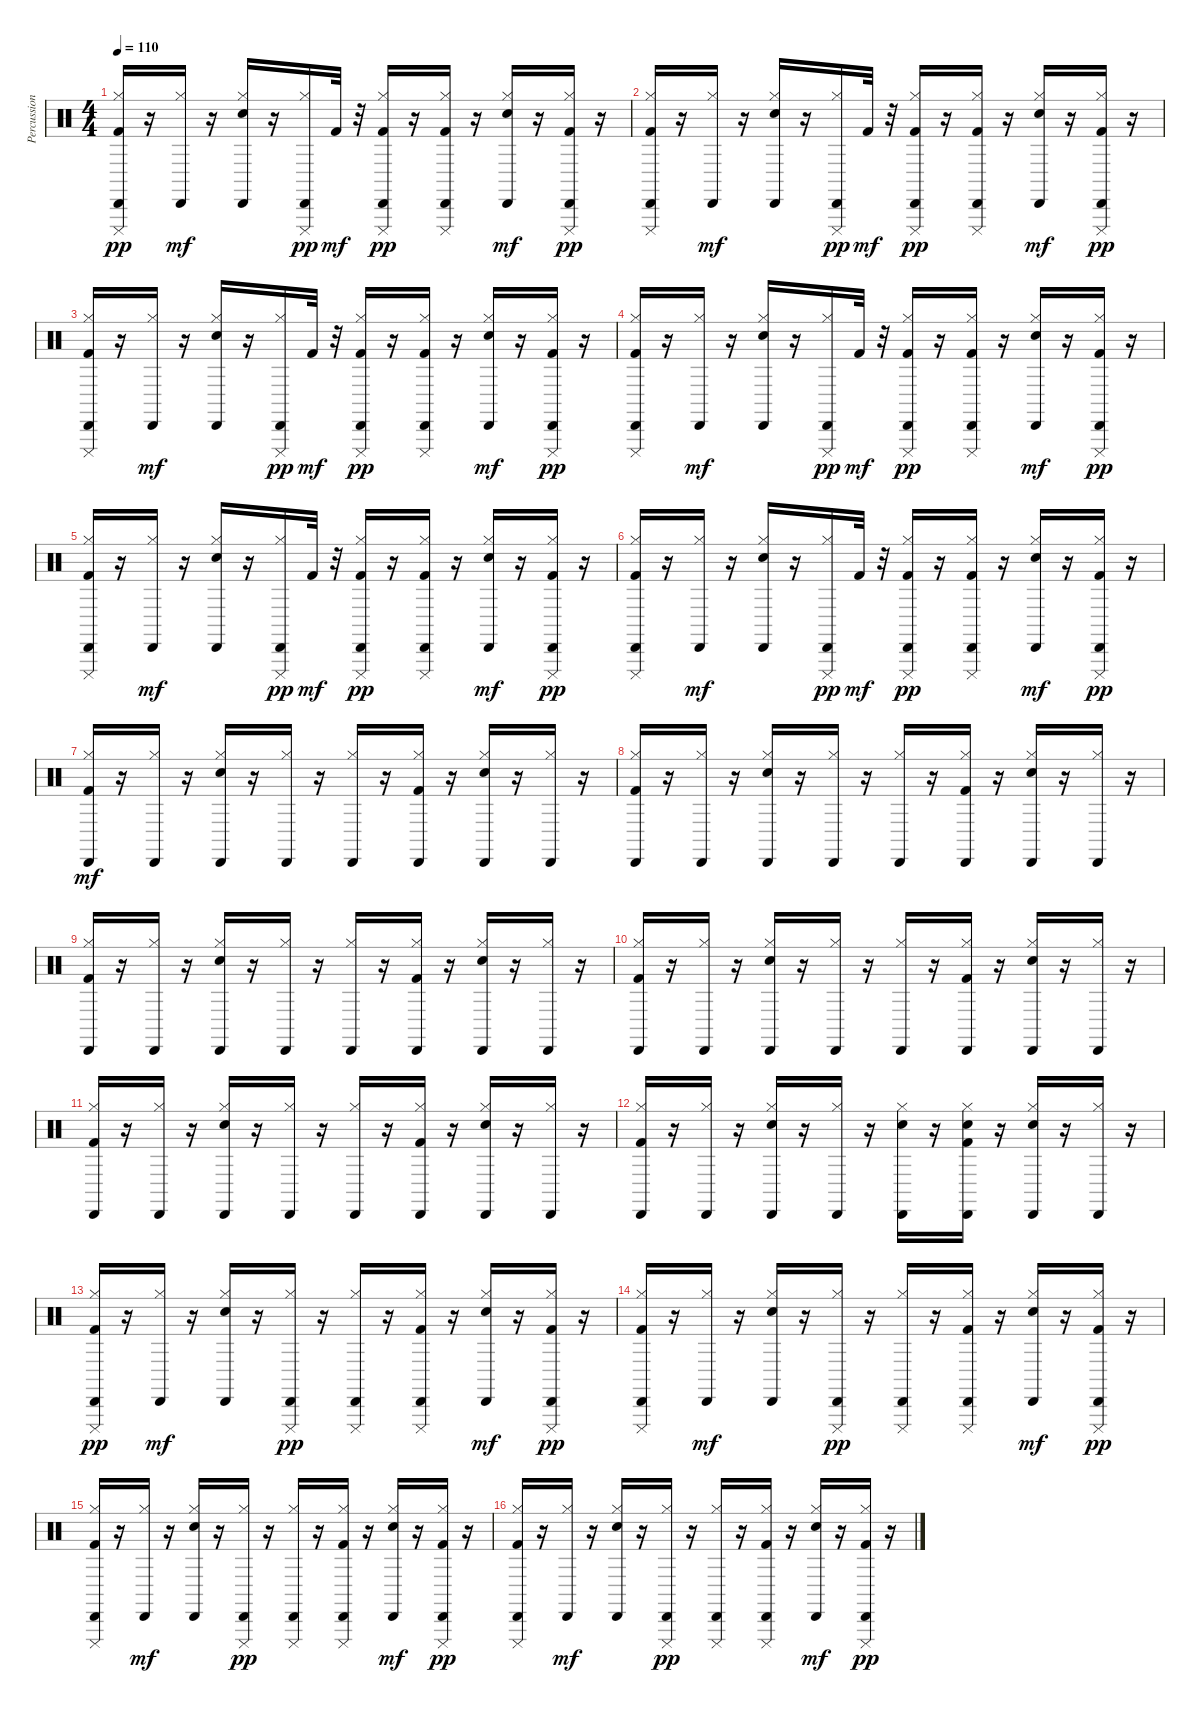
\track ("Percussion" "Percussion") {instrument percussion}
\staff {score}
\articulation defaults
\ts (4 4)
\tempo 110
\clef neutral
\ks c
("Kick (hit) 2" "Hi-Hat (closed)" "Cabasa (hit)" "Cuica (mute)").16{dy pp} r.16 ("Hi-Hat (closed)" "Cabasa (hit)").16{dy mf} r.16 ("Electric Snare (hit)" "Hi-Hat (closed)" "Cabasa (hit)").16 r.16 ("Hi-Hat (closed)" "Cabasa (hit)" "Cuica (mute)").16{dy pp} "Kick (hit) 2".32{dy mf} r.32 ("Kick (hit) 2" "Hi-Hat (closed)" "Cabasa (hit)" "Cuica (mute)").16{dy pp} r.16 ("Kick (hit) 2" "Hi-Hat (closed)" "Cabasa (hit)" "Cuica (mute)").16 r.16 ("Electric Snare (hit)" "Hi-Hat (closed)" "Cabasa (hit)").16{dy mf} r.16 ("Kick (hit) 2" "Hi-Hat (closed)" "Cabasa (hit)" "Cuica (mute)").16{dy pp} r.16 |
("Kick (hit) 2" "Hi-Hat (closed)" "Cabasa (hit)" "Cuica (mute)").16 r.16 ("Hi-Hat (closed)" "Cabasa (hit)").16{dy mf} r.16 ("Electric Snare (hit)" "Hi-Hat (closed)" "Cabasa (hit)").16 r.16 ("Hi-Hat (closed)" "Cabasa (hit)" "Cuica (mute)").16{dy pp} "Kick (hit) 2".32{dy mf} r.32 ("Kick (hit) 2" "Hi-Hat (closed)" "Cabasa (hit)" "Cuica (mute)").16{dy pp} r.16 ("Kick (hit) 2" "Hi-Hat (closed)" "Cabasa (hit)" "Cuica (mute)").16 r.16 ("Electric Snare (hit)" "Hi-Hat (closed)" "Cabasa (hit)").16{dy mf} r.16 ("Kick (hit) 2" "Hi-Hat (closed)" "Cabasa (hit)" "Cuica (mute)").16{dy pp} r.16 |
("Kick (hit) 2" "Hi-Hat (closed)" "Cabasa (hit)" "Cuica (mute)").16 r.16 ("Hi-Hat (closed)" "Cabasa (hit)").16{dy mf} r.16 ("Electric Snare (hit)" "Hi-Hat (closed)" "Cabasa (hit)").16 r.16 ("Hi-Hat (closed)" "Cabasa (hit)" "Cuica (mute)").16{dy pp} "Kick (hit) 2".32{dy mf} r.32 ("Kick (hit) 2" "Hi-Hat (closed)" "Cabasa (hit)" "Cuica (mute)").16{dy pp} r.16 ("Kick (hit) 2" "Hi-Hat (closed)" "Cabasa (hit)" "Cuica (mute)").16 r.16 ("Electric Snare (hit)" "Hi-Hat (closed)" "Cabasa (hit)").16{dy mf} r.16 ("Kick (hit) 2" "Hi-Hat (closed)" "Cabasa (hit)" "Cuica (mute)").16{dy pp} r.16 |
("Kick (hit) 2" "Hi-Hat (closed)" "Cabasa (hit)" "Cuica (mute)").16 r.16 ("Hi-Hat (closed)" "Cabasa (hit)").16{dy mf} r.16 ("Electric Snare (hit)" "Hi-Hat (closed)" "Cabasa (hit)").16 r.16 ("Hi-Hat (closed)" "Cabasa (hit)" "Cuica (mute)").16{dy pp} "Kick (hit) 2".32{dy mf} r.32 ("Kick (hit) 2" "Hi-Hat (closed)" "Cabasa (hit)" "Cuica (mute)").16{dy pp} r.16 ("Kick (hit) 2" "Hi-Hat (closed)" "Cabasa (hit)" "Cuica (mute)").16 r.16 ("Electric Snare (hit)" "Hi-Hat (closed)" "Cabasa (hit)").16{dy mf} r.16 ("Kick (hit) 2" "Hi-Hat (closed)" "Cabasa (hit)" "Cuica (mute)").16{dy pp} r.16 |
("Kick (hit) 2" "Hi-Hat (closed)" "Cabasa (hit)" "Cuica (mute)").16 r.16 ("Hi-Hat (closed)" "Cabasa (hit)").16{dy mf} r.16 ("Electric Snare (hit)" "Hi-Hat (closed)" "Cabasa (hit)").16 r.16 ("Hi-Hat (closed)" "Cabasa (hit)" "Cuica (mute)").16{dy pp} "Kick (hit) 2".32{dy mf} r.32 ("Kick (hit) 2" "Hi-Hat (closed)" "Cabasa (hit)" "Cuica (mute)").16{dy pp} r.16 ("Kick (hit) 2" "Hi-Hat (closed)" "Cabasa (hit)" "Cuica (mute)").16 r.16 ("Electric Snare (hit)" "Hi-Hat (closed)" "Cabasa (hit)").16{dy mf} r.16 ("Kick (hit) 2" "Hi-Hat (closed)" "Cabasa (hit)" "Cuica (mute)").16{dy pp} r.16 |
("Kick (hit) 2" "Hi-Hat (closed)" "Cabasa (hit)" "Cuica (mute)").16 r.16 ("Hi-Hat (closed)" "Cabasa (hit)").16{dy mf} r.16 ("Electric Snare (hit)" "Hi-Hat (closed)" "Cabasa (hit)").16 r.16 ("Hi-Hat (closed)" "Cabasa (hit)" "Cuica (mute)").16{dy pp} "Kick (hit) 2".32{dy mf} r.32 ("Kick (hit) 2" "Hi-Hat (closed)" "Cabasa (hit)" "Cuica (mute)").16{dy pp} r.16 ("Kick (hit) 2" "Hi-Hat (closed)" "Cabasa (hit)" "Cuica (mute)").16 r.16 ("Electric Snare (hit)" "Hi-Hat (closed)" "Cabasa (hit)").16{dy mf} r.16 ("Kick (hit) 2" "Hi-Hat (closed)" "Cabasa (hit)" "Cuica (mute)").16{dy pp} r.16 |
("Kick (hit) 2" "Hi-Hat (closed)" "Cabasa (hit)").16{dy mf} r.16 ("Hi-Hat (closed)" "Cabasa (hit)").16 r.16 ("Electric Snare (hit)" "Hi-Hat (closed)" "Cabasa (hit)").16 r.16 ("Hi-Hat (closed)" "Cabasa (hit)").16 r.16 ("Hi-Hat (closed)" "Cabasa (hit)").16 r.16 ("Kick (hit) 2" "Hi-Hat (closed)" "Cabasa (hit)").16 r.16 ("Electric Snare (hit)" "Hi-Hat (closed)" "Cabasa (hit)").16 r.16 ("Hi-Hat (closed)" "Cabasa (hit)").16 r.16 |
("Kick (hit) 2" "Hi-Hat (closed)" "Cabasa (hit)").16 r.16 ("Hi-Hat (closed)" "Cabasa (hit)").16 r.16 ("Electric Snare (hit)" "Hi-Hat (closed)" "Cabasa (hit)").16 r.16 ("Hi-Hat (closed)" "Cabasa (hit)").16 r.16 ("Hi-Hat (closed)" "Cabasa (hit)").16 r.16 ("Kick (hit) 2" "Hi-Hat (closed)" "Cabasa (hit)").16 r.16 ("Electric Snare (hit)" "Hi-Hat (closed)" "Cabasa (hit)").16 r.16 ("Hi-Hat (closed)" "Cabasa (hit)").16 r.16 |
("Kick (hit) 2" "Hi-Hat (closed)" "Cabasa (hit)").16 r.16 ("Hi-Hat (closed)" "Cabasa (hit)").16 r.16 ("Electric Snare (hit)" "Hi-Hat (closed)" "Cabasa (hit)").16 r.16 ("Hi-Hat (closed)" "Cabasa (hit)").16 r.16 ("Hi-Hat (closed)" "Cabasa (hit)").16 r.16 ("Kick (hit) 2" "Hi-Hat (closed)" "Cabasa (hit)").16 r.16 ("Electric Snare (hit)" "Hi-Hat (closed)" "Cabasa (hit)").16 r.16 ("Hi-Hat (closed)" "Cabasa (hit)").16 r.16 |
("Kick (hit) 2" "Hi-Hat (closed)" "Cabasa (hit)").16 r.16 ("Hi-Hat (closed)" "Cabasa (hit)").16 r.16 ("Electric Snare (hit)" "Hi-Hat (closed)" "Cabasa (hit)").16 r.16 ("Hi-Hat (closed)" "Cabasa (hit)").16 r.16 ("Hi-Hat (closed)" "Cabasa (hit)").16 r.16 ("Kick (hit) 2" "Hi-Hat (closed)" "Cabasa (hit)").16 r.16 ("Electric Snare (hit)" "Hi-Hat (closed)" "Cabasa (hit)").16 r.16 ("Hi-Hat (closed)" "Cabasa (hit)").16 r.16 |
("Kick (hit) 2" "Hi-Hat (closed)" "Cabasa (hit)").16 r.16 ("Hi-Hat (closed)" "Cabasa (hit)").16 r.16 ("Electric Snare (hit)" "Hi-Hat (closed)" "Cabasa (hit)").16 r.16 ("Hi-Hat (closed)" "Cabasa (hit)").16 r.16 ("Hi-Hat (closed)" "Cabasa (hit)").16 r.16 ("Kick (hit) 2" "Hi-Hat (closed)" "Cabasa (hit)").16 r.16 ("Electric Snare (hit)" "Hi-Hat (closed)" "Cabasa (hit)").16 r.16 ("Hi-Hat (closed)" "Cabasa (hit)").16 r.16 |
("Kick (hit) 2" "Hi-Hat (closed)" "Cabasa (hit)").16 r.16 ("Hi-Hat (closed)" "Cabasa (hit)").16 r.16 ("Electric Snare (hit)" "Hi-Hat (closed)" "Cabasa (hit)").16 r.16 ("Hi-Hat (closed)" "Cabasa (hit)").16 r.16 ("Electric Snare (hit)" "Hi-Hat (closed)" "Cabasa (hit)").16 r.16 ("Kick (hit) 2" "Electric Snare (hit)" "Hi-Hat (closed)" "Cabasa (hit)").16 r.16 ("Electric Snare (hit)" "Hi-Hat (closed)" "Cabasa (hit)").16 r.16 ("Hi-Hat (closed)" "Cabasa (hit)").16 r.16 |
("Kick (hit) 2" "Hi-Hat (closed)" "Cabasa (hit)" "Cuica (mute)").16{dy pp} r.16 ("Hi-Hat (closed)" "Cabasa (hit)").16{dy mf} r.16 ("Electric Snare (hit)" "Hi-Hat (closed)" "Cabasa (hit)").16 r.16 ("Hi-Hat (closed)" "Cabasa (hit)" "Cuica (mute)").16{dy pp} r.16 ("Hi-Hat (closed)" "Cabasa (hit)" "Cuica (mute)").16 r.16 ("Kick (hit) 2" "Hi-Hat (closed)" "Cabasa (hit)" "Cuica (mute)").16 r.16 ("Electric Snare (hit)" "Hi-Hat (closed)" "Cabasa (hit)").16{dy mf} r.16 ("Kick (hit) 2" "Hi-Hat (closed)" "Cabasa (hit)" "Cuica (mute)").16{dy pp} r.16 |
("Kick (hit) 2" "Hi-Hat (closed)" "Cabasa (hit)" "Cuica (mute)").16 r.16 ("Hi-Hat (closed)" "Cabasa (hit)").16{dy mf} r.16 ("Electric Snare (hit)" "Hi-Hat (closed)" "Cabasa (hit)").16 r.16 ("Hi-Hat (closed)" "Cabasa (hit)" "Cuica (mute)").16{dy pp} r.16 ("Hi-Hat (closed)" "Cabasa (hit)" "Cuica (mute)").16 r.16 ("Kick (hit) 2" "Hi-Hat (closed)" "Cabasa (hit)" "Cuica (mute)").16 r.16 ("Electric Snare (hit)" "Hi-Hat (closed)" "Cabasa (hit)").16{dy mf} r.16 ("Kick (hit) 2" "Hi-Hat (closed)" "Cabasa (hit)" "Cuica (mute)").16{dy pp} r.16 |
("Kick (hit) 2" "Hi-Hat (closed)" "Cabasa (hit)" "Cuica (mute)").16 r.16 ("Hi-Hat (closed)" "Cabasa (hit)").16{dy mf} r.16 ("Electric Snare (hit)" "Hi-Hat (closed)" "Cabasa (hit)").16 r.16 ("Hi-Hat (closed)" "Cabasa (hit)" "Cuica (mute)").16{dy pp} r.16 ("Hi-Hat (closed)" "Cabasa (hit)" "Cuica (mute)").16 r.16 ("Kick (hit) 2" "Hi-Hat (closed)" "Cabasa (hit)" "Cuica (mute)").16 r.16 ("Electric Snare (hit)" "Hi-Hat (closed)" "Cabasa (hit)").16{dy mf} r.16 ("Kick (hit) 2" "Hi-Hat (closed)" "Cabasa (hit)" "Cuica (mute)").16{dy pp} r.16 |
("Kick (hit) 2" "Hi-Hat (closed)" "Cabasa (hit)" "Cuica (mute)").16 r.16 ("Hi-Hat (closed)" "Cabasa (hit)").16{dy mf} r.16 ("Electric Snare (hit)" "Hi-Hat (closed)" "Cabasa (hit)").16 r.16 ("Hi-Hat (closed)" "Cabasa (hit)" "Cuica (mute)").16{dy pp} r.16 ("Hi-Hat (closed)" "Cabasa (hit)" "Cuica (mute)").16 r.16 ("Kick (hit) 2" "Hi-Hat (closed)" "Cabasa (hit)" "Cuica (mute)").16 r.16 ("Electric Snare (hit)" "Hi-Hat (closed)" "Cabasa (hit)").16{dy mf} r.16 ("Kick (hit) 2" "Hi-Hat (closed)" "Cabasa (hit)" "Cuica (mute)").16{dy pp} r.16
